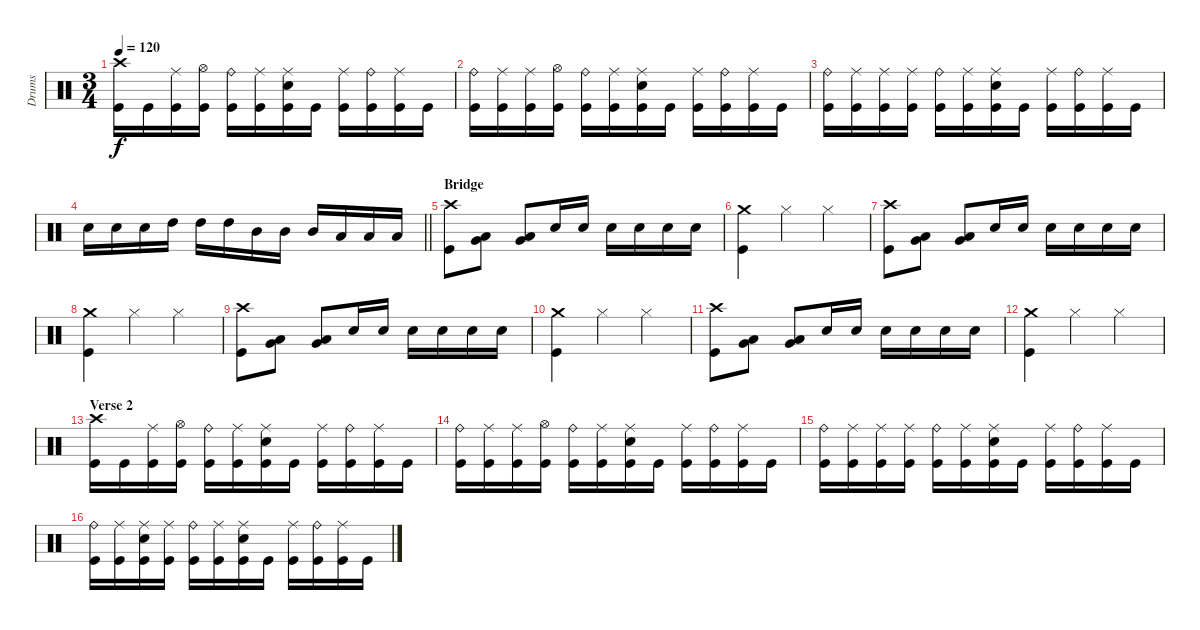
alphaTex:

\track ("Drums" "Drums") {instrument percussion}
\staff {score}
\articulation defaults
\ts (3 4)
\tempo 120
\clef neutral
\ks c
("Crash high (hit)" "Kick (hit)").16{dy f} "Kick (hit)".16 ("Ride (middle)" "Kick (hit)").16 ("Hi-Hat (open)" "Kick (hit)").16 ("Ride (bell)" "Kick (hit)").16 ("Ride (middle)" "Kick (hit)").16 ("Ride (middle)" "Electric Snare (hit)" "Kick (hit)").16 "Kick (hit)".16 ("Ride (middle)" "Kick (hit)").16 ("Ride (bell)" "Kick (hit)").16 ("Ride (middle)" "Kick (hit)").16 "Kick (hit)".16 |
("Ride (bell)" "Kick (hit)").16 ("Ride (middle)" "Kick (hit)").16 ("Ride (middle)" "Kick (hit)").16 ("Hi-Hat (open)" "Kick (hit)").16 ("Ride (bell)" "Kick (hit)").16 ("Ride (middle)" "Kick (hit)").16 ("Ride (middle)" "Electric Snare (hit)" "Kick (hit)").16 "Kick (hit)".16 ("Ride (middle)" "Kick (hit)").16 ("Ride (bell)" "Kick (hit)").16 ("Ride (middle)" "Kick (hit)").16 "Kick (hit)".16 |
("Ride (bell)" "Kick (hit)").16 ("Ride (middle)" "Kick (hit)").16 ("Ride (middle)" "Kick (hit)").16 ("Ride (middle)" "Kick (hit)").16 ("Ride (bell)" "Kick (hit)").16 ("Ride (middle)" "Kick (hit)").16 ("Ride (middle)" "Electric Snare (hit)" "Kick (hit)").16 "Kick (hit)".16 ("Ride (middle)" "Kick (hit)").16 ("Ride (bell)" "Kick (hit)").16 ("Ride (middle)" "Kick (hit)").16 "Kick (hit)".16 |
\barLineRight lightlight "Electric Snare (hit)".16 "Electric Snare (hit)".16 "Electric Snare (hit)".16 "High Tom (hit)".16 "High Tom (hit)".16 "High Tom (hit)".16 "Mid Tom (hit)".16 "Mid Tom (hit)".16 "Mid Tom (hit)".16 "Low Tom (hit)".16 "Low Tom (hit)".16 "Low Tom (hit)".16
|
\section ("" "Bridge")
("Crash high (hit)" "Kick (hit)").8 ("Very Low Tom (hit)" "Low Tom (hit)").8 ("Very Low Tom (hit)" "Low Tom (hit)").8 "Electric Snare (hit)".16 "Electric Snare (hit)".16 "Electric Snare (hit)".16 "Electric Snare (hit)".16 "Electric Snare (hit)".16 "Electric Snare (hit)".16 |
("Crash medium (hit)" "Kick (hit)").4 "Hi-Hat (closed)".4 "Hi-Hat (closed)".4 |
("Crash high (hit)" "Kick (hit)").8 ("Very Low Tom (hit)" "Low Tom (hit)").8 ("Very Low Tom (hit)" "Low Tom (hit)").8 "Electric Snare (hit)".16 "Electric Snare (hit)".16 "Electric Snare (hit)".16 "Electric Snare (hit)".16 "Electric Snare (hit)".16 "Electric Snare (hit)".16 |
("Crash medium (hit)" "Kick (hit)").4 "Hi-Hat (closed)".4 "Hi-Hat (closed)".4 |
("Crash high (hit)" "Kick (hit)").8 ("Very Low Tom (hit)" "Low Tom (hit)").8 ("Very Low Tom (hit)" "Low Tom (hit)").8 "Electric Snare (hit)".16 "Electric Snare (hit)".16 "Electric Snare (hit)".16 "Electric Snare (hit)".16 "Electric Snare (hit)".16 "Electric Snare (hit)".16 |
("Crash medium (hit)" "Kick (hit)").4 "Hi-Hat (closed)".4 "Hi-Hat (closed)".4 |
("Crash high (hit)" "Kick (hit)").8 ("Very Low Tom (hit)" "Low Tom (hit)").8 ("Very Low Tom (hit)" "Low Tom (hit)").8 "Electric Snare (hit)".16 "Electric Snare (hit)".16 "Electric Snare (hit)".16 "Electric Snare (hit)".16 "Electric Snare (hit)".16 "Electric Snare (hit)".16 |
("Crash medium (hit)" "Kick (hit)").4 "Hi-Hat (closed)".4 "Hi-Hat (closed)".4 |
\section ("" "Verse 2")
("Crash high (hit)" "Kick (hit)").16 "Kick (hit)".16 ("Ride (middle)" "Kick (hit)").16 ("Hi-Hat (open)" "Kick (hit)").16 ("Ride (bell)" "Kick (hit)").16 ("Ride (middle)" "Kick (hit)").16 ("Ride (middle)" "Electric Snare (hit)" "Kick (hit)").16 "Kick (hit)".16 ("Ride (middle)" "Kick (hit)").16 ("Ride (bell)" "Kick (hit)").16 ("Ride (middle)" "Kick (hit)").16 "Kick (hit)".16 |
("Ride (bell)" "Kick (hit)").16 ("Ride (middle)" "Kick (hit)").16 ("Ride (middle)" "Kick (hit)").16 ("Hi-Hat (open)" "Kick (hit)").16 ("Ride (bell)" "Kick (hit)").16 ("Ride (middle)" "Kick (hit)").16 ("Ride (middle)" "Electric Snare (hit)" "Kick (hit)").16 "Kick (hit)".16 ("Ride (middle)" "Kick (hit)").16 ("Ride (bell)" "Kick (hit)").16 ("Ride (middle)" "Kick (hit)").16 "Kick (hit)".16 |
("Ride (bell)" "Kick (hit)").16 ("Ride (middle)" "Kick (hit)").16 ("Ride (middle)" "Kick (hit)").16 ("Ride (middle)" "Kick (hit)").16 ("Ride (bell)" "Kick (hit)").16 ("Ride (middle)" "Kick (hit)").16 ("Ride (middle)" "Electric Snare (hit)" "Kick (hit)").16 "Kick (hit)".16 ("Ride (middle)" "Kick (hit)").16 ("Ride (bell)" "Kick (hit)").16 ("Ride (middle)" "Kick (hit)").16 "Kick (hit)".16 |
("Ride (bell)" "Kick (hit)").16 ("Ride (middle)" "Kick (hit)").16 ("Ride (middle)" "Electric Snare (hit)" "Kick (hit)").16 ("Ride (middle)" "Kick (hit)").16 ("Ride (bell)" "Kick (hit)").16 ("Ride (middle)" "Kick (hit)").16 ("Ride (middle)" "Electric Snare (hit)" "Kick (hit)").16 "Kick (hit)".16 ("Ride (middle)" "Kick (hit)").16 ("Ride (bell)" "Kick (hit)").16 ("Ride (middle)" "Kick (hit)").16 "Kick (hit)".16
